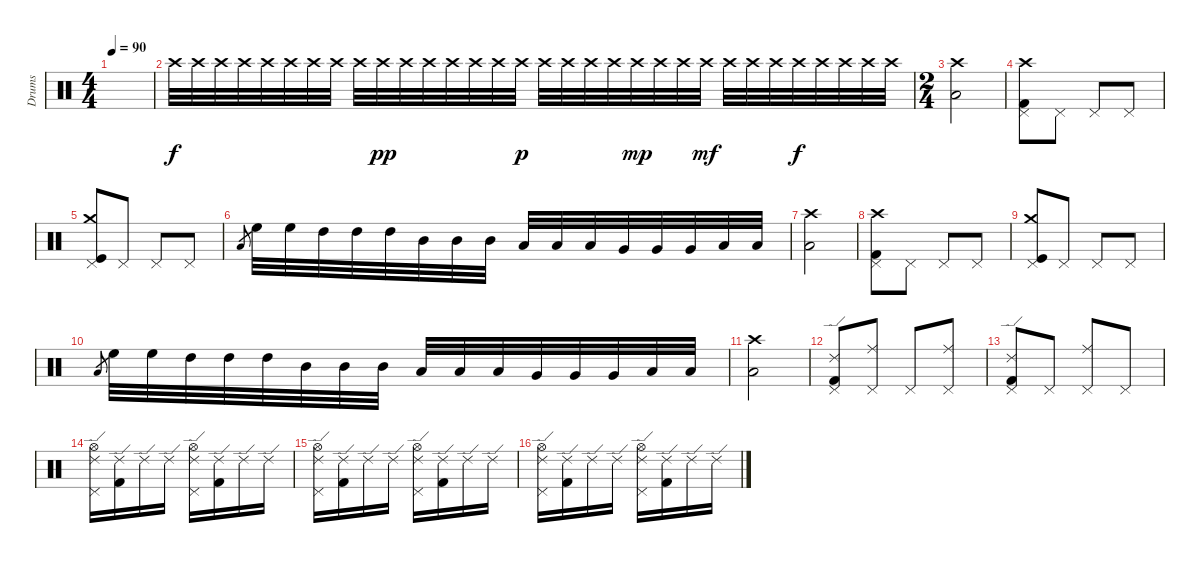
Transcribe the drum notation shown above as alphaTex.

\track ("Drums" "Drums") {instrument percussion}
\staff {score}
\articulation defaults
\ts (4 4)
\tempo 90
\clef neutral
\ks c
|
"Crash high (hit)".32 "Crash high (hit)".32 "Crash high (hit)".32 "Crash high (hit)".32 "Crash high (hit)".32 "Crash high (hit)".32 "Crash high (hit)".32 "Crash high (hit)".32 "Crash high (hit)".32 "Crash high (hit)".32{dy pp} "Crash high (hit)".32 "Crash high (hit)".32 "Crash high (hit)".32 "Crash high (hit)".32 "Crash high (hit)".32 "Crash high (hit)".32{dy p} "Crash high (hit)".32 "Crash high (hit)".32 "Crash high (hit)".32 "Crash high (hit)".32 "Crash high (hit)".32{dy mp} "Crash high (hit)".32 "Crash high (hit)".32 "Crash high (hit)".32{dy mf} "Crash high (hit)".32 "Crash high (hit)".32 "Crash high (hit)".32 "Crash high (hit)".32{dy f} "Crash high (hit)".32 "Crash high (hit)".32 "Crash high (hit)".32 "Crash high (hit)".32 |
\ts (2 4)
("Crash high (hit)" "Low Floor Tom (hit)").2 |
("Pedal Hi-Hat (hit)" "Crash high (hit)" "Kick (hit) 2").8 "Pedal Hi-Hat (hit)".8 "Pedal Hi-Hat (hit)".8 "Pedal Hi-Hat (hit)".8 |
("Pedal Hi-Hat (hit)" "Crash medium (hit)" "Kick (hit)").8 "Pedal Hi-Hat (hit)".8 "Pedal Hi-Hat (hit)".8 "Pedal Hi-Hat (hit)".8 |
"Low Floor Tom (hit)".8{gr} "High Floor Tom (hit)".32 "High Floor Tom (hit)".32 "High Tom (hit)".32 "High Tom (hit)".32 "High Tom (hit)".32 "Mid Tom (hit)".32 "Mid Tom (hit)".32 "Mid Tom (hit)".32 "Low Tom (hit)".32 "Low Tom (hit)".32 "Low Tom (hit)".32 "Very Low Tom (hit)".32 "Very Low Tom (hit)".32 "Very Low Tom (hit)".32 "Low Floor Tom (hit)".32 "Low Floor Tom (hit)".32 |
("Crash high (hit)" "Low Floor Tom (hit)").2 |
("Pedal Hi-Hat (hit)" "Crash high (hit)" "Kick (hit) 2").8 "Pedal Hi-Hat (hit)".8 "Pedal Hi-Hat (hit)".8 "Pedal Hi-Hat (hit)".8 |
("Pedal Hi-Hat (hit)" "Crash medium (hit)" "Kick (hit)").8 "Pedal Hi-Hat (hit)".8 "Pedal Hi-Hat (hit)".8 "Pedal Hi-Hat (hit)".8 |
"Low Floor Tom (hit)".8{gr} "High Floor Tom (hit)".32 "High Floor Tom (hit)".32 "High Tom (hit)".32 "High Tom (hit)".32 "High Tom (hit)".32 "Mid Tom (hit)".32 "Mid Tom (hit)".32 "Mid Tom (hit)".32 "Low Tom (hit)".32 "Low Tom (hit)".32 "Low Tom (hit)".32 "Very Low Tom (hit)".32 "Very Low Tom (hit)".32 "Very Low Tom (hit)".32 "Low Floor Tom (hit)".32 "Low Floor Tom (hit)".32 |
("Crash high (hit)" "Low Floor Tom (hit)").2 |
("Pedal Hi-Hat (hit)" "Ride (edge) 2" "Kick (hit) 2").8 ("Pedal Hi-Hat (hit)" "Ride (middle)").8 "Pedal Hi-Hat (hit)".8 ("Pedal Hi-Hat (hit)" "Ride (middle)").8 |
("Pedal Hi-Hat (hit)" "Ride (edge) 2" "Kick (hit) 2").8 "Pedal Hi-Hat (hit)".8 ("Pedal Hi-Hat (hit)" "Ride (middle)").8 "Pedal Hi-Hat (hit)".8 |
("Pedal Hi-Hat (hit)" "Ride (edge) 2" "Hi-Hat (open)").16 ("Ride (edge) 2" "Kick (hit) 2").16 "Ride (edge) 2".16 "Ride (edge) 2".16 ("Pedal Hi-Hat (hit)" "Ride (edge) 2" "Hi-Hat (open)").16 ("Ride (edge) 2" "Kick (hit) 2").16 "Ride (edge) 2".16 "Ride (edge) 2".16 |
("Pedal Hi-Hat (hit)" "Ride (edge) 2" "Hi-Hat (open)").16 ("Ride (edge) 2" "Kick (hit) 2").16 "Ride (edge) 2".16 "Ride (edge) 2".16 ("Pedal Hi-Hat (hit)" "Ride (edge) 2" "Hi-Hat (open)").16 ("Ride (edge) 2" "Kick (hit) 2").16 "Ride (edge) 2".16 "Ride (edge) 2".16 |
("Pedal Hi-Hat (hit)" "Ride (edge) 2" "Hi-Hat (open)").16 ("Ride (edge) 2" "Kick (hit) 2").16 "Ride (edge) 2".16 "Ride (edge) 2".16 ("Pedal Hi-Hat (hit)" "Ride (edge) 2" "Hi-Hat (open)").16 ("Ride (edge) 2" "Kick (hit) 2").16 "Ride (edge) 2".16 "Ride (edge) 2".16
